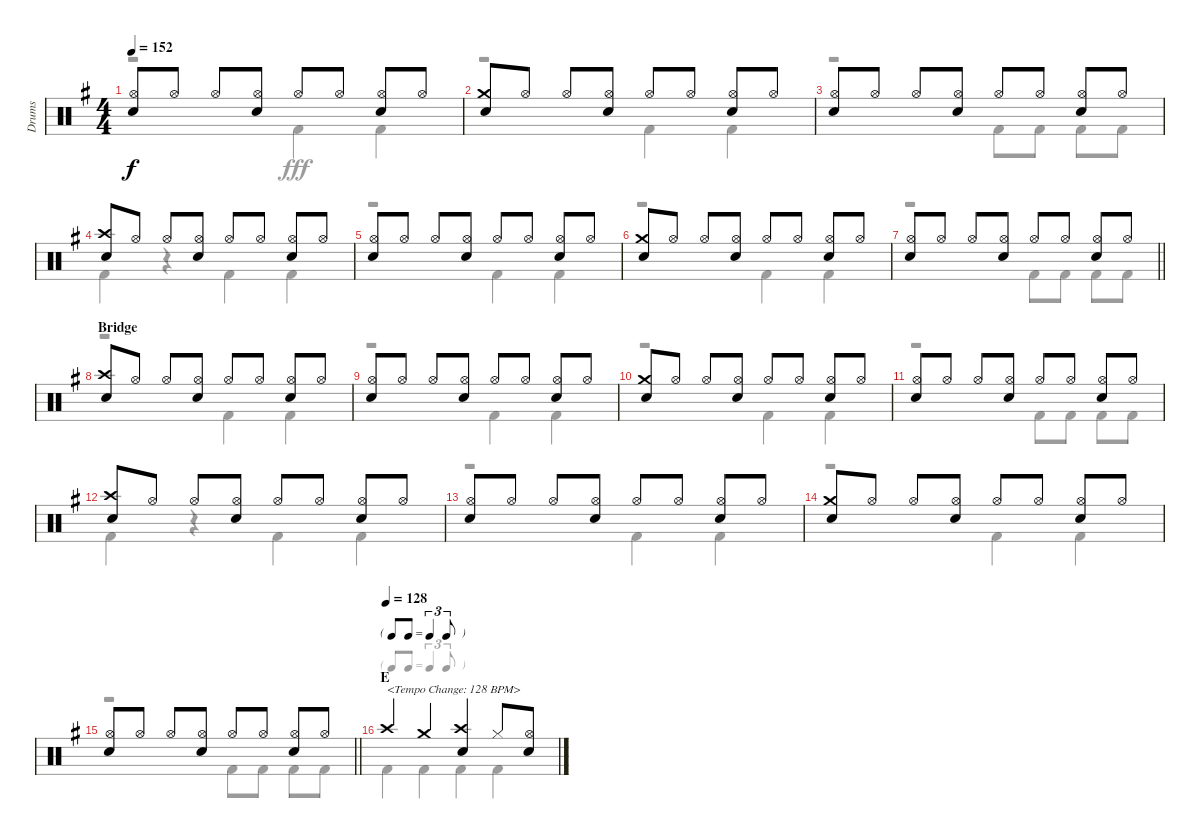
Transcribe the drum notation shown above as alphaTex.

\track ("Drums" "Drums") {instrument percussion}
\staff {score}
\articulation defaults
\voice
\ts (4 4)
\tempo 152
\clef neutral
\ks g
("Hi-Hat (open)" "Snare (hit) 2").8{dy f} "Hi-Hat (open)".8 "Hi-Hat (open)".8 ("Hi-Hat (open)" "Snare (hit) 2").8 "Hi-Hat (open)".8 "Hi-Hat (open)".8 ("Hi-Hat (open)" "Snare (hit) 2").8 "Hi-Hat (open)".8 |
("Crash medium (hit)" "Snare (hit) 2").8 "Hi-Hat (open)".8 "Hi-Hat (open)".8 ("Hi-Hat (open)" "Snare (hit) 2").8 "Hi-Hat (open)".8 "Hi-Hat (open)".8 ("Hi-Hat (open)" "Snare (hit) 2").8 "Hi-Hat (open)".8 |
("Hi-Hat (open)" "Snare (hit) 2").8 "Hi-Hat (open)".8 "Hi-Hat (open)".8 ("Hi-Hat (open)" "Snare (hit) 2").8 "Hi-Hat (open)".8 "Hi-Hat (open)".8 ("Hi-Hat (open)" "Snare (hit) 2").8 "Hi-Hat (open)".8 |
("Crash high (hit)" "Snare (hit) 2").8 "Hi-Hat (open)".8 "Hi-Hat (open)".8 ("Hi-Hat (open)" "Snare (hit) 2").8 "Hi-Hat (open)".8 "Hi-Hat (open)".8 ("Hi-Hat (open)" "Snare (hit) 2").8 "Hi-Hat (open)".8 |
("Hi-Hat (open)" "Snare (hit) 2").8 "Hi-Hat (open)".8 "Hi-Hat (open)".8 ("Hi-Hat (open)" "Snare (hit) 2").8 "Hi-Hat (open)".8 "Hi-Hat (open)".8 ("Hi-Hat (open)" "Snare (hit) 2").8 "Hi-Hat (open)".8 |
("Crash medium (hit)" "Snare (hit) 2").8 "Hi-Hat (open)".8 "Hi-Hat (open)".8 ("Hi-Hat (open)" "Snare (hit) 2").8 "Hi-Hat (open)".8 "Hi-Hat (open)".8 ("Hi-Hat (open)" "Snare (hit) 2").8 "Hi-Hat (open)".8 |
\barLineRight lightlight
("Hi-Hat (open)" "Snare (hit) 2").8 "Hi-Hat (open)".8 "Hi-Hat (open)".8 ("Hi-Hat (open)" "Snare (hit) 2").8 "Hi-Hat (open)".8 "Hi-Hat (open)".8 ("Hi-Hat (open)" "Snare (hit) 2").8 "Hi-Hat (open)".8 |
\section ("" "Bridge")
("Crash high (hit)" "Snare (hit) 2").8 "Hi-Hat (open)".8 "Hi-Hat (open)".8 ("Hi-Hat (open)" "Snare (hit) 2").8 "Hi-Hat (open)".8 "Hi-Hat (open)".8 ("Hi-Hat (open)" "Snare (hit) 2").8 "Hi-Hat (open)".8 |
("Hi-Hat (open)" "Snare (hit) 2").8 "Hi-Hat (open)".8 "Hi-Hat (open)".8 ("Hi-Hat (open)" "Snare (hit) 2").8 "Hi-Hat (open)".8 "Hi-Hat (open)".8 ("Hi-Hat (open)" "Snare (hit) 2").8 "Hi-Hat (open)".8 |
("Crash medium (hit)" "Snare (hit) 2").8 "Hi-Hat (open)".8 "Hi-Hat (open)".8 ("Hi-Hat (open)" "Snare (hit) 2").8 "Hi-Hat (open)".8 "Hi-Hat (open)".8 ("Hi-Hat (open)" "Snare (hit) 2").8 "Hi-Hat (open)".8 |
("Hi-Hat (open)" "Snare (hit) 2").8 "Hi-Hat (open)".8 "Hi-Hat (open)".8 ("Hi-Hat (open)" "Snare (hit) 2").8 "Hi-Hat (open)".8 "Hi-Hat (open)".8 ("Hi-Hat (open)" "Snare (hit) 2").8 "Hi-Hat (open)".8 |
("Crash high (hit)" "Snare (hit) 2").8 "Hi-Hat (open)".8 "Hi-Hat (open)".8 ("Hi-Hat (open)" "Snare (hit) 2").8 "Hi-Hat (open)".8 "Hi-Hat (open)".8 ("Hi-Hat (open)" "Snare (hit) 2").8 "Hi-Hat (open)".8 |
("Hi-Hat (open)" "Snare (hit) 2").8 "Hi-Hat (open)".8 "Hi-Hat (open)".8 ("Hi-Hat (open)" "Snare (hit) 2").8 "Hi-Hat (open)".8 "Hi-Hat (open)".8 ("Hi-Hat (open)" "Snare (hit) 2").8 "Hi-Hat (open)".8 |
("Crash medium (hit)" "Snare (hit) 2").8 "Hi-Hat (open)".8 "Hi-Hat (open)".8 ("Hi-Hat (open)" "Snare (hit) 2").8 "Hi-Hat (open)".8 "Hi-Hat (open)".8 ("Hi-Hat (open)" "Snare (hit) 2").8 "Hi-Hat (open)".8 |
\barLineRight lightlight
("Hi-Hat (open)" "Snare (hit) 2").8 "Hi-Hat (open)".8 "Hi-Hat (open)".8 ("Hi-Hat (open)" "Snare (hit) 2").8 "Hi-Hat (open)".8 "Hi-Hat (open)".8 ("Hi-Hat (open)" "Snare (hit) 2").8 "Hi-Hat (open)".8 |
\tf triplet8th
\section ("" "E")
\tempo (128)
"Crash high (hit)".4{txt "<Tempo Change: 128 BPM>"} "Crash medium (hit)".4 ("Crash high (hit)" "Snare (hit) 2").4 "Hi-Hat (closed)".8 ("Hi-Hat (open)" "Snare (hit) 2").8
\voice
\clef neutral
\ottava regular
\simile none
\ks g
r.2{dy fff} "Kick (hit) 2".4 "Kick (hit) 2".4 |
r.2 "Kick (hit) 2".4 "Kick (hit) 2".4 |
r.2 "Kick (hit) 2".8 "Kick (hit) 2".8 "Kick (hit) 2".8 "Kick (hit) 2".8 |
"Kick (hit) 2".4 r.4 "Kick (hit) 2".4 "Kick (hit) 2".4 |
r.2 "Kick (hit) 2".4 "Kick (hit) 2".4 |
r.2 "Kick (hit) 2".4 "Kick (hit) 2".4 |
\barLineRight lightlight
r.2 "Kick (hit) 2".8 "Kick (hit) 2".8 "Kick (hit) 2".8 "Kick (hit) 2".8 |
r.2 "Kick (hit) 2".4 "Kick (hit) 2".4 |
r.2 "Kick (hit) 2".4 "Kick (hit) 2".4 |
r.2 "Kick (hit) 2".4 "Kick (hit) 2".4 |
r.2 "Kick (hit) 2".8 "Kick (hit) 2".8 "Kick (hit) 2".8 "Kick (hit) 2".8 |
"Kick (hit) 2".4 r.4 "Kick (hit) 2".4 "Kick (hit) 2".4 |
r.2 "Kick (hit) 2".4 "Kick (hit) 2".4 |
r.2 "Kick (hit) 2".4 "Kick (hit) 2".4 |
\barLineRight lightlight
r.2 "Kick (hit) 2".8 "Kick (hit) 2".8 "Kick (hit) 2".8 "Kick (hit) 2".8 |
"Kick (hit) 2".4 "Kick (hit) 2".4 "Kick (hit) 2".4 "Kick (hit) 2".4
